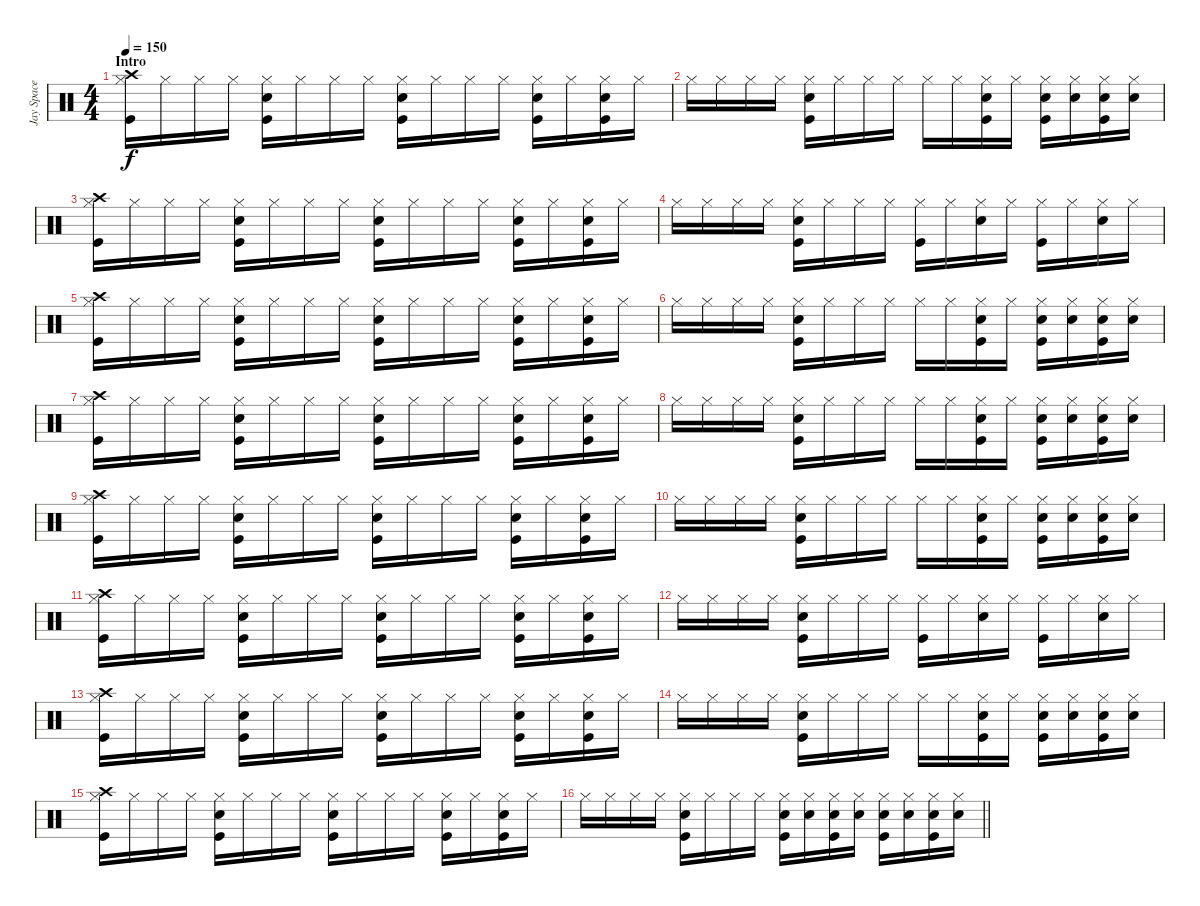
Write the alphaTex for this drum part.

\track ("Jay Space - Drums" "Jay Space ") {instrument percussion}
\staff {score}
\articulation defaults
\ts (4 4)
\section ("" "Intro")
\tempo 150
\clef neutral
\ks c
("Hi-Hat (closed)" "Kick (hit)" "Crash high (hit)").16{dy f} "Hi-Hat (closed)".16 "Hi-Hat (closed)".16 "Hi-Hat (closed)".16 ("Hi-Hat (closed)" "Snare (hit) 2" "Kick (hit)").16 "Hi-Hat (closed)".16 "Hi-Hat (closed)".16 "Hi-Hat (closed)".16 ("Hi-Hat (closed)" "Snare (hit) 2" "Kick (hit)").16 "Hi-Hat (closed)".16 "Hi-Hat (closed)".16 "Hi-Hat (closed)".16 ("Hi-Hat (closed)" "Snare (hit) 2" "Kick (hit)").16 "Hi-Hat (closed)".16 ("Hi-Hat (closed)" "Snare (hit) 2" "Kick (hit)").16 "Hi-Hat (closed)".16 |
"Hi-Hat (closed)".16 "Hi-Hat (closed)".16 "Hi-Hat (closed)".16 "Hi-Hat (closed)".16 ("Hi-Hat (closed)" "Snare (hit) 2" "Kick (hit)").16 "Hi-Hat (closed)".16 "Hi-Hat (closed)".16 "Hi-Hat (closed)".16 "Hi-Hat (closed)".16 "Hi-Hat (closed)".16 ("Hi-Hat (closed)" "Snare (hit) 2" "Kick (hit)").16 "Hi-Hat (closed)".16 ("Hi-Hat (closed)" "Snare (hit) 2" "Kick (hit)").16 ("Hi-Hat (closed)" "Snare (hit) 2").16 ("Hi-Hat (closed)" "Snare (hit) 2" "Kick (hit)").16 ("Hi-Hat (closed)" "Snare (hit) 2").16 |
("Hi-Hat (closed)" "Kick (hit)" "Crash high (hit)").16 "Hi-Hat (closed)".16 "Hi-Hat (closed)".16 "Hi-Hat (closed)".16 ("Hi-Hat (closed)" "Snare (hit) 2" "Kick (hit)").16 "Hi-Hat (closed)".16 "Hi-Hat (closed)".16 "Hi-Hat (closed)".16 ("Hi-Hat (closed)" "Snare (hit) 2" "Kick (hit)").16 "Hi-Hat (closed)".16 "Hi-Hat (closed)".16 "Hi-Hat (closed)".16 ("Hi-Hat (closed)" "Snare (hit) 2" "Kick (hit)").16 "Hi-Hat (closed)".16 ("Hi-Hat (closed)" "Snare (hit) 2" "Kick (hit)").16 "Hi-Hat (closed)".16 |
"Hi-Hat (closed)".16 "Hi-Hat (closed)".16 "Hi-Hat (closed)".16 "Hi-Hat (closed)".16 ("Hi-Hat (closed)" "Snare (hit) 2" "Kick (hit)").16 "Hi-Hat (closed)".16 "Hi-Hat (closed)".16 "Hi-Hat (closed)".16 ("Hi-Hat (closed)" "Kick (hit)").16 "Hi-Hat (closed)".16 ("Hi-Hat (closed)" "Snare (hit) 2").16 "Hi-Hat (closed)".16 ("Hi-Hat (closed)" "Kick (hit)").16 "Hi-Hat (closed)".16 ("Hi-Hat (closed)" "Snare (hit) 2").16 "Hi-Hat (closed)".16 |
("Hi-Hat (closed)" "Kick (hit)" "Crash high (hit)").16 "Hi-Hat (closed)".16 "Hi-Hat (closed)".16 "Hi-Hat (closed)".16 ("Hi-Hat (closed)" "Snare (hit) 2" "Kick (hit)").16 "Hi-Hat (closed)".16 "Hi-Hat (closed)".16 "Hi-Hat (closed)".16 ("Hi-Hat (closed)" "Snare (hit) 2" "Kick (hit)").16 "Hi-Hat (closed)".16 "Hi-Hat (closed)".16 "Hi-Hat (closed)".16 ("Hi-Hat (closed)" "Snare (hit) 2" "Kick (hit)").16 "Hi-Hat (closed)".16 ("Hi-Hat (closed)" "Snare (hit) 2" "Kick (hit)").16 "Hi-Hat (closed)".16 |
"Hi-Hat (closed)".16 "Hi-Hat (closed)".16 "Hi-Hat (closed)".16 "Hi-Hat (closed)".16 ("Hi-Hat (closed)" "Snare (hit) 2" "Kick (hit)").16 "Hi-Hat (closed)".16 "Hi-Hat (closed)".16 "Hi-Hat (closed)".16 "Hi-Hat (closed)".16 "Hi-Hat (closed)".16 ("Hi-Hat (closed)" "Snare (hit) 2" "Kick (hit)").16 "Hi-Hat (closed)".16 ("Hi-Hat (closed)" "Snare (hit) 2" "Kick (hit)").16 ("Hi-Hat (closed)" "Snare (hit) 2").16 ("Hi-Hat (closed)" "Snare (hit) 2" "Kick (hit)").16 ("Hi-Hat (closed)" "Snare (hit) 2").16 |
("Hi-Hat (closed)" "Kick (hit)" "Crash high (hit)").16 "Hi-Hat (closed)".16 "Hi-Hat (closed)".16 "Hi-Hat (closed)".16 ("Hi-Hat (closed)" "Snare (hit) 2" "Kick (hit)").16 "Hi-Hat (closed)".16 "Hi-Hat (closed)".16 "Hi-Hat (closed)".16 ("Hi-Hat (closed)" "Snare (hit) 2" "Kick (hit)").16 "Hi-Hat (closed)".16 "Hi-Hat (closed)".16 "Hi-Hat (closed)".16 ("Hi-Hat (closed)" "Snare (hit) 2" "Kick (hit)").16 "Hi-Hat (closed)".16 ("Hi-Hat (closed)" "Snare (hit) 2" "Kick (hit)").16 "Hi-Hat (closed)".16 |
"Hi-Hat (closed)".16 "Hi-Hat (closed)".16 "Hi-Hat (closed)".16 "Hi-Hat (closed)".16 ("Hi-Hat (closed)" "Snare (hit) 2" "Kick (hit)").16 "Hi-Hat (closed)".16 "Hi-Hat (closed)".16 "Hi-Hat (closed)".16 "Hi-Hat (closed)".16 "Hi-Hat (closed)".16 ("Hi-Hat (closed)" "Snare (hit) 2" "Kick (hit)").16 "Hi-Hat (closed)".16 ("Hi-Hat (closed)" "Snare (hit) 2" "Kick (hit)").16 ("Hi-Hat (closed)" "Snare (hit) 2").16 ("Hi-Hat (closed)" "Snare (hit) 2" "Kick (hit)").16 ("Hi-Hat (closed)" "Snare (hit) 2").16 |
("Hi-Hat (closed)" "Kick (hit)" "Crash high (hit)").16 "Hi-Hat (closed)".16 "Hi-Hat (closed)".16 "Hi-Hat (closed)".16 ("Hi-Hat (closed)" "Snare (hit) 2" "Kick (hit)").16 "Hi-Hat (closed)".16 "Hi-Hat (closed)".16 "Hi-Hat (closed)".16 ("Hi-Hat (closed)" "Snare (hit) 2" "Kick (hit)").16 "Hi-Hat (closed)".16 "Hi-Hat (closed)".16 "Hi-Hat (closed)".16 ("Hi-Hat (closed)" "Snare (hit) 2" "Kick (hit)").16 "Hi-Hat (closed)".16 ("Hi-Hat (closed)" "Snare (hit) 2" "Kick (hit)").16 "Hi-Hat (closed)".16 |
"Hi-Hat (closed)".16 "Hi-Hat (closed)".16 "Hi-Hat (closed)".16 "Hi-Hat (closed)".16 ("Hi-Hat (closed)" "Snare (hit) 2" "Kick (hit)").16 "Hi-Hat (closed)".16 "Hi-Hat (closed)".16 "Hi-Hat (closed)".16 "Hi-Hat (closed)".16 "Hi-Hat (closed)".16 ("Hi-Hat (closed)" "Snare (hit) 2" "Kick (hit)").16 "Hi-Hat (closed)".16 ("Hi-Hat (closed)" "Snare (hit) 2" "Kick (hit)").16 ("Hi-Hat (closed)" "Snare (hit) 2").16 ("Hi-Hat (closed)" "Snare (hit) 2" "Kick (hit)").16 ("Hi-Hat (closed)" "Snare (hit) 2").16 |
("Hi-Hat (closed)" "Kick (hit)" "Crash high (hit)").16 "Hi-Hat (closed)".16 "Hi-Hat (closed)".16 "Hi-Hat (closed)".16 ("Hi-Hat (closed)" "Snare (hit) 2" "Kick (hit)").16 "Hi-Hat (closed)".16 "Hi-Hat (closed)".16 "Hi-Hat (closed)".16 ("Hi-Hat (closed)" "Snare (hit) 2" "Kick (hit)").16 "Hi-Hat (closed)".16 "Hi-Hat (closed)".16 "Hi-Hat (closed)".16 ("Hi-Hat (closed)" "Snare (hit) 2" "Kick (hit)").16 "Hi-Hat (closed)".16 ("Hi-Hat (closed)" "Snare (hit) 2" "Kick (hit)").16 "Hi-Hat (closed)".16 |
"Hi-Hat (closed)".16 "Hi-Hat (closed)".16 "Hi-Hat (closed)".16 "Hi-Hat (closed)".16 ("Hi-Hat (closed)" "Snare (hit) 2" "Kick (hit)").16 "Hi-Hat (closed)".16 "Hi-Hat (closed)".16 "Hi-Hat (closed)".16 ("Hi-Hat (closed)" "Kick (hit)").16 "Hi-Hat (closed)".16 ("Hi-Hat (closed)" "Snare (hit) 2").16 "Hi-Hat (closed)".16 ("Hi-Hat (closed)" "Kick (hit)").16 "Hi-Hat (closed)".16 ("Hi-Hat (closed)" "Snare (hit) 2").16 "Hi-Hat (closed)".16 |
("Hi-Hat (closed)" "Kick (hit)" "Crash high (hit)").16 "Hi-Hat (closed)".16 "Hi-Hat (closed)".16 "Hi-Hat (closed)".16 ("Hi-Hat (closed)" "Snare (hit) 2" "Kick (hit)").16 "Hi-Hat (closed)".16 "Hi-Hat (closed)".16 "Hi-Hat (closed)".16 ("Hi-Hat (closed)" "Snare (hit) 2" "Kick (hit)").16 "Hi-Hat (closed)".16 "Hi-Hat (closed)".16 "Hi-Hat (closed)".16 ("Hi-Hat (closed)" "Snare (hit) 2" "Kick (hit)").16 "Hi-Hat (closed)".16 ("Hi-Hat (closed)" "Snare (hit) 2" "Kick (hit)").16 "Hi-Hat (closed)".16 |
"Hi-Hat (closed)".16 "Hi-Hat (closed)".16 "Hi-Hat (closed)".16 "Hi-Hat (closed)".16 ("Hi-Hat (closed)" "Snare (hit) 2" "Kick (hit)").16 "Hi-Hat (closed)".16 "Hi-Hat (closed)".16 "Hi-Hat (closed)".16 "Hi-Hat (closed)".16 "Hi-Hat (closed)".16 ("Hi-Hat (closed)" "Snare (hit) 2" "Kick (hit)").16 "Hi-Hat (closed)".16 ("Hi-Hat (closed)" "Snare (hit) 2" "Kick (hit)").16 ("Hi-Hat (closed)" "Snare (hit) 2").16 ("Hi-Hat (closed)" "Snare (hit) 2" "Kick (hit)").16 ("Hi-Hat (closed)" "Snare (hit) 2").16 |
("Hi-Hat (closed)" "Kick (hit)" "Crash high (hit)").16 "Hi-Hat (closed)".16 "Hi-Hat (closed)".16 "Hi-Hat (closed)".16 ("Hi-Hat (closed)" "Snare (hit) 2" "Kick (hit)").16 "Hi-Hat (closed)".16 "Hi-Hat (closed)".16 "Hi-Hat (closed)".16 ("Hi-Hat (closed)" "Snare (hit) 2" "Kick (hit)").16 "Hi-Hat (closed)".16 "Hi-Hat (closed)".16 "Hi-Hat (closed)".16 ("Hi-Hat (closed)" "Snare (hit) 2" "Kick (hit)").16 "Hi-Hat (closed)".16 ("Hi-Hat (closed)" "Snare (hit) 2" "Kick (hit)").16 "Hi-Hat (closed)".16 |
\barLineRight lightlight "Hi-Hat (closed)".16 "Hi-Hat (closed)".16 "Hi-Hat (closed)".16 "Hi-Hat (closed)".16
("Hi-Hat (closed)" "Snare (hit) 2" "Kick (hit)").16 "Hi-Hat (closed)".16 "Hi-Hat (closed)".16 "Hi-Hat (closed)".16 ("Hi-Hat (closed)" "Snare (hit) 2" "Kick (hit)").16 ("Hi-Hat (closed)" "Snare (hit) 2").16 ("Hi-Hat (closed)" "Snare (hit) 2" "Kick (hit)").16 ("Hi-Hat (closed)" "Snare (hit) 2").16 ("Hi-Hat (closed)" "Snare (hit) 2" "Kick (hit)").16 ("Hi-Hat (closed)" "Snare (hit) 2").16 ("Hi-Hat (closed)" "Snare (hit) 2" "Kick (hit)").16 ("Hi-Hat (closed)" "Snare (hit) 2").16
